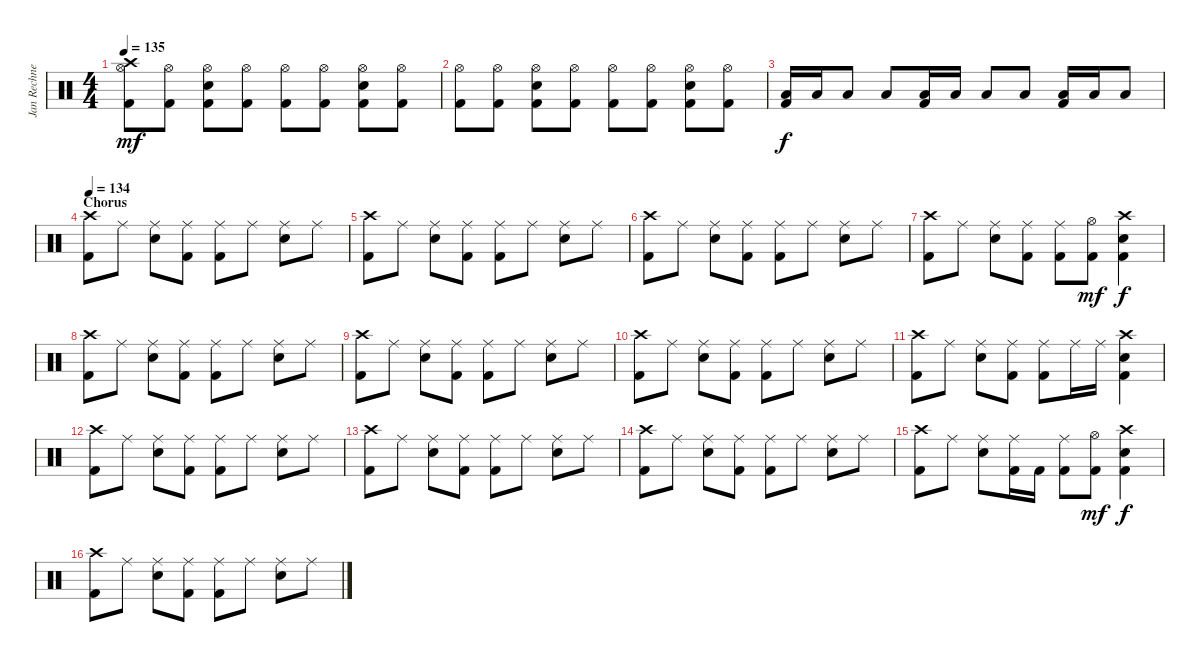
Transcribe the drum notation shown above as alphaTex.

\track ("Jan Rechnerger" "Jan Rechne") {instrument percussion}
\staff {score}
\articulation defaults
\ts (4 4)
\tempo 135
\clef neutral
\ks c
("Crash high (hit)" "Hi-Hat (open)" "Kick (hit) 2").8{dy mf} ("Hi-Hat (open)" "Kick (hit) 2").8 ("Hi-Hat (open)" "Snare (hit) 2" "Kick (hit) 2").8 ("Hi-Hat (open)" "Kick (hit) 2").8 ("Hi-Hat (open)" "Kick (hit) 2").8 ("Hi-Hat (open)" "Kick (hit) 2").8 ("Hi-Hat (open)" "Snare (hit) 2" "Kick (hit) 2").8 ("Hi-Hat (open)" "Kick (hit) 2").8 |
("Hi-Hat (open)" "Kick (hit) 2").8 ("Hi-Hat (open)" "Kick (hit) 2").8 ("Hi-Hat (open)" "Snare (hit) 2" "Kick (hit) 2").8 ("Hi-Hat (open)" "Kick (hit) 2").8 ("Hi-Hat (open)" "Kick (hit) 2").8 ("Hi-Hat (open)" "Kick (hit) 2").8 ("Hi-Hat (open)" "Snare (hit) 2" "Kick (hit) 2").8 ("Hi-Hat (open)" "Kick (hit) 2").8 |
("Low Tom (hit)" "Kick (hit) 2").16{dy f} "Low Tom (hit)".16 "Low Tom (hit)".8 "Low Tom (hit)".8 ("Low Tom (hit)" "Kick (hit) 2").16 "Low Tom (hit)".16 "Low Tom (hit)".8 "Low Tom (hit)".8 ("Low Tom (hit)" "Kick (hit) 2").16 "Low Tom (hit)".16 "Low Tom (hit)".8 |
\section ("" "Chorus")
\tempo 134
("Crash high (hit)" "Kick (hit) 2").8 "Ride (middle)".8 ("Ride (middle)" "Snare (hit) 2").8 ("Ride (middle)" "Kick (hit) 2").8 ("Ride (middle)" "Kick (hit) 2").8 "Ride (middle)".8 ("Ride (middle)" "Snare (hit) 2").8 "Ride (middle)".8 |
("Crash high (hit)" "Kick (hit) 2").8 "Ride (middle)".8 ("Ride (middle)" "Snare (hit) 2").8 ("Ride (middle)" "Kick (hit) 2").8 ("Ride (middle)" "Kick (hit) 2").8 "Ride (middle)".8 ("Ride (middle)" "Snare (hit) 2").8 "Ride (middle)".8 |
("Crash high (hit)" "Kick (hit) 2").8 "Ride (middle)".8 ("Ride (middle)" "Snare (hit) 2").8 ("Ride (middle)" "Kick (hit) 2").8 ("Ride (middle)" "Kick (hit) 2").8 "Ride (middle)".8 ("Ride (middle)" "Snare (hit) 2").8 "Ride (middle)".8 |
("Crash high (hit)" "Kick (hit) 2").8 "Ride (middle)".8 ("Ride (middle)" "Snare (hit) 2").8 ("Ride (middle)" "Kick (hit) 2").8 ("Ride (middle)" "Kick (hit) 2").8 ("Hi-Hat (open)" "Kick (hit) 2").8{dy mf} ("Crash high (hit)" "Snare (hit) 2" "Kick (hit) 2").4{dy f} |
("Crash high (hit)" "Kick (hit) 2").8 "Ride (middle)".8 ("Ride (middle)" "Snare (hit) 2").8 ("Ride (middle)" "Kick (hit) 2").8 ("Ride (middle)" "Kick (hit) 2").8 "Ride (middle)".8 ("Ride (middle)" "Snare (hit) 2").8 "Ride (middle)".8 |
("Crash high (hit)" "Kick (hit) 2").8 "Ride (middle)".8 ("Ride (middle)" "Snare (hit) 2").8 ("Ride (middle)" "Kick (hit) 2").8 ("Ride (middle)" "Kick (hit) 2").8 "Ride (middle)".8 ("Ride (middle)" "Snare (hit) 2").8 "Ride (middle)".8 |
("Crash high (hit)" "Kick (hit) 2").8 "Ride (middle)".8 ("Ride (middle)" "Snare (hit) 2").8 ("Ride (middle)" "Kick (hit) 2").8 ("Ride (middle)" "Kick (hit) 2").8 "Ride (middle)".8 ("Ride (middle)" "Snare (hit) 2").8 "Ride (middle)".8 |
("Crash high (hit)" "Kick (hit) 2").8 "Ride (middle)".8 ("Ride (middle)" "Snare (hit) 2").8 ("Ride (middle)" "Kick (hit) 2").8 ("Ride (middle)" "Kick (hit) 2").8 "Ride (middle)".16 "Ride (middle)".16 ("Crash high (hit)" "Snare (hit) 2" "Kick (hit) 2").4 |
("Crash high (hit)" "Kick (hit) 2").8 "Ride (middle)".8 ("Ride (middle)" "Snare (hit) 2").8 ("Ride (middle)" "Kick (hit) 2").8 ("Ride (middle)" "Kick (hit) 2").8 "Ride (middle)".8 ("Ride (middle)" "Snare (hit) 2").8 "Ride (middle)".8 |
("Crash high (hit)" "Kick (hit) 2").8 "Ride (middle)".8 ("Ride (middle)" "Snare (hit) 2").8 ("Ride (middle)" "Kick (hit) 2").8 ("Ride (middle)" "Kick (hit) 2").8 "Ride (middle)".8 ("Ride (middle)" "Snare (hit) 2").8 "Ride (middle)".8 |
("Crash high (hit)" "Kick (hit) 2").8 "Ride (middle)".8 ("Ride (middle)" "Snare (hit) 2").8 ("Ride (middle)" "Kick (hit) 2").8 ("Ride (middle)" "Kick (hit) 2").8 "Ride (middle)".8 ("Ride (middle)" "Snare (hit) 2").8 "Ride (middle)".8 |
("Crash high (hit)" "Kick (hit) 2").8 "Ride (middle)".8 ("Ride (middle)" "Snare (hit) 2").8 ("Ride (middle)" "Kick (hit) 2").16 "Kick (hit) 2".16 ("Ride (middle)" "Kick (hit) 2").8 ("Hi-Hat (open)" "Kick (hit) 2").8{dy mf} ("Crash high (hit)" "Snare (hit) 2" "Kick (hit) 2").4{dy f} |
("Crash high (hit)" "Kick (hit) 2").8 "Ride (middle)".8 ("Ride (middle)" "Snare (hit) 2").8 ("Ride (middle)" "Kick (hit) 2").8 ("Ride (middle)" "Kick (hit) 2").8 "Ride (middle)".8 ("Ride (middle)" "Snare (hit) 2").8 "Ride (middle)".8
